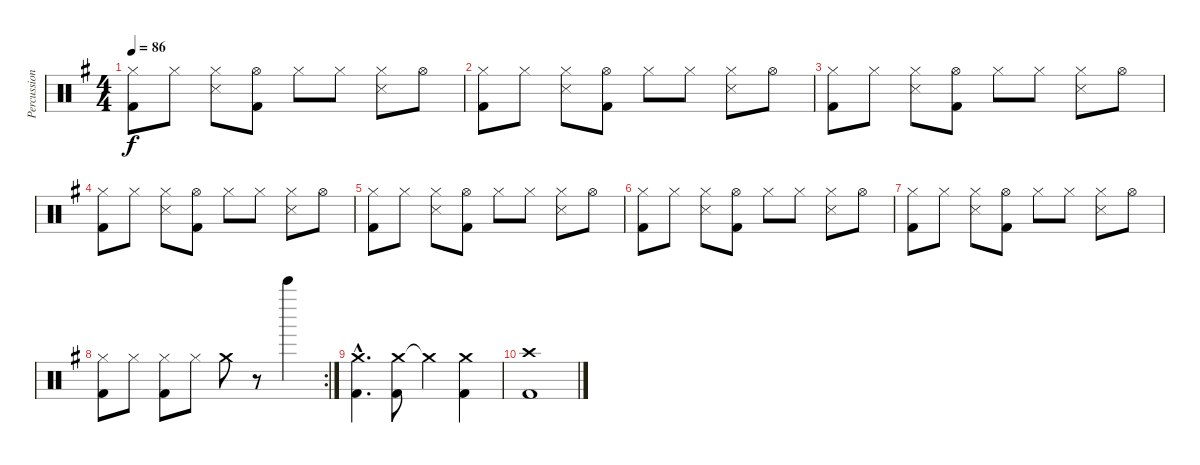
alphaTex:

\track ("Percussion" "Percussion") {instrument percussion}
\staff {score}
\articulation defaults
\ts (4 4)
\tempo 86
\clef neutral
\ks g
("Hi-Hat (closed)" "Kick (hit) 2").8{dy f} "Hi-Hat (closed)".8 ("Hi-Hat (closed)" "Snare (side stick) 3").8 ("Hi-Hat (open)" "Kick (hit) 2").8 "Hi-Hat (closed)".8 "Hi-Hat (closed)".8 ("Hi-Hat (closed)" "Snare (side stick) 3").8 "Hi-Hat (open)".8 |
("Hi-Hat (closed)" "Kick (hit) 2").8 "Hi-Hat (closed)".8 ("Hi-Hat (closed)" "Snare (side stick) 3").8 ("Hi-Hat (open)" "Kick (hit) 2").8 "Hi-Hat (closed)".8 "Hi-Hat (closed)".8 ("Hi-Hat (closed)" "Snare (side stick) 3").8 "Hi-Hat (open)".8 |
("Hi-Hat (closed)" "Kick (hit) 2").8 "Hi-Hat (closed)".8 ("Hi-Hat (closed)" "Snare (side stick) 3").8 ("Hi-Hat (open)" "Kick (hit) 2").8 "Hi-Hat (closed)".8 "Hi-Hat (closed)".8 ("Hi-Hat (closed)" "Snare (side stick) 3").8 "Hi-Hat (open)".8 |
("Hi-Hat (closed)" "Kick (hit) 2").8 "Hi-Hat (closed)".8 ("Hi-Hat (closed)" "Snare (side stick) 3").8 ("Hi-Hat (open)" "Kick (hit) 2").8 "Hi-Hat (closed)".8 "Hi-Hat (closed)".8 ("Hi-Hat (closed)" "Snare (side stick) 3").8 "Hi-Hat (open)".8 |
("Hi-Hat (closed)" "Kick (hit) 2").8 "Hi-Hat (closed)".8 ("Hi-Hat (closed)" "Snare (side stick) 3").8 ("Hi-Hat (open)" "Kick (hit) 2").8 "Hi-Hat (closed)".8 "Hi-Hat (closed)".8 ("Hi-Hat (closed)" "Snare (side stick) 3").8 "Hi-Hat (open)".8 |
("Hi-Hat (closed)" "Kick (hit) 2").8 "Hi-Hat (closed)".8 ("Hi-Hat (closed)" "Snare (side stick) 3").8 ("Hi-Hat (open)" "Kick (hit) 2").8 "Hi-Hat (closed)".8 "Hi-Hat (closed)".8 ("Hi-Hat (closed)" "Snare (side stick) 3").8 "Hi-Hat (open)".8 |
("Hi-Hat (closed)" "Kick (hit) 2").8 "Hi-Hat (closed)".8 ("Hi-Hat (closed)" "Snare (side stick) 3").8 ("Hi-Hat (open)" "Kick (hit) 2").8 "Hi-Hat (closed)".8 "Hi-Hat (closed)".8 ("Hi-Hat (closed)" "Snare (side stick) 3").8 "Hi-Hat (open)".8 |
\rc 2
("Hi-Hat (closed)" "Kick (hit) 2").8 "Hi-Hat (closed)".8 ("Hi-Hat (closed)" "Kick (hit) 2").8 "Hi-Hat (closed)".8 "Crash medium (hit)".8 r.8 "Bell Tree (hit)".4 |
("Crash medium (hit)"{hac} "Kick (hit) 2"{hac}).4{d} ("Crash medium (hit)" "Kick (hit) 2").8 "Crash medium (hit)"{t}.4 ("Crash medium (hit)" "Kick (hit) 2").4 |
("Crash high (hit)" "Kick (hit) 2").1
